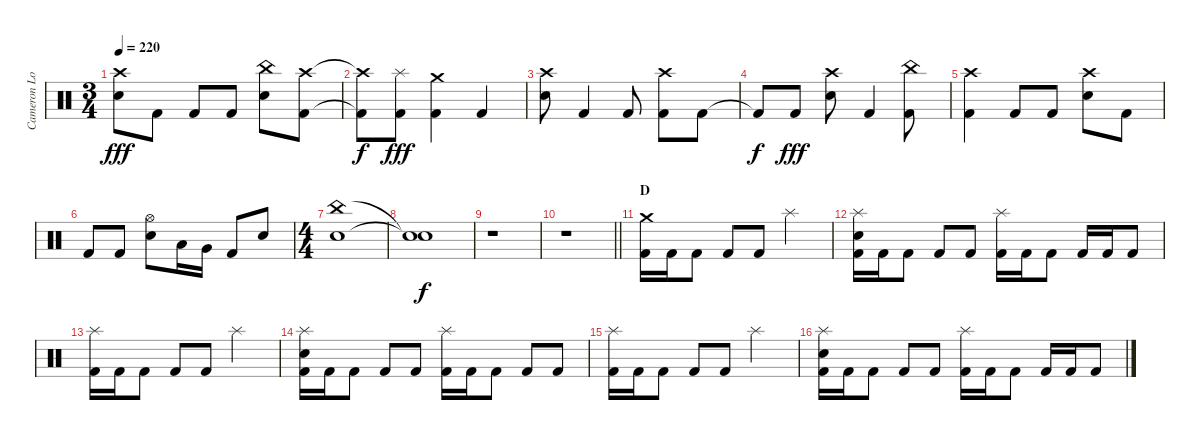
\track ("Cameron Losch - Drums" "Cameron Lo") {instrument percussion}
\staff {score}
\articulation defaults
\ts (3 4)
\tempo 220
\clef neutral
\ks c
("Crash high (hit)" "Electric Snare (hit)").8{dy fff} "Kick (hit) 2".8 "Kick (hit) 2".8 "Kick (hit) 2".8 ("China (hit)" "Electric Snare (hit)").8 ("Crash high (hit)" "Kick (hit) 2").8 |
("Crash high (hit)"{t} "Kick (hit) 2"{t}).8{dy f} ("Splash (hit)" "Kick (hit) 2").8{dy fff} ("Crash medium (hit)" "Kick (hit) 2").4 "Kick (hit) 2".4 |
("Crash high (hit)" "Electric Snare (hit)").8 "Kick (hit) 2".4 "Kick (hit) 2".8 ("Crash high (hit)" "Kick (hit) 2").8 "Kick (hit) 2".8 |
"Kick (hit) 2"{t}.8{dy f} "Kick (hit) 2".8{dy fff} ("Crash high (hit)" "Electric Snare (hit)").8 "Kick (hit) 2".4 ("China (hit)" "Kick (hit) 2").8 |
("Crash high (hit)" "Kick (hit) 2").4 "Kick (hit) 2".8 "Kick (hit) 2".8 ("Crash high (hit)" "Electric Snare (hit)").8 "Kick (hit) 2".8 |
"Kick (hit) 2".8 "Kick (hit) 2".8 ("Hi-Hat (open)" "Electric Snare (hit)").8 "Low Tom (hit)".16 "Very Low Tom (hit)".16 "Kick (hit) 2".8 "Electric Snare (hit)".8 |
\ts (4 4)
("China (hit)" "Electric Snare (hit)").1 |
("Snare (hit)"{t} "Snare (hit)"{t}).1{dy f} |
r.1 |
\barLineRight lightlight
r.1 |
\section ("" "D")
("Kick (hit) 2" "Crash medium (hit)").16 "Kick (hit) 2".16 "Kick (hit) 2".8 "Kick (hit) 2".8 "Kick (hit) 2".8 "Splash (hit)".2 |
("Kick (hit) 2" "Electric Snare (hit)" "Splash (hit)").16 "Kick (hit) 2".16 "Kick (hit) 2".8 "Kick (hit) 2".8 "Kick (hit) 2".8 ("Kick (hit) 2" "Splash (hit)").16 "Kick (hit) 2".16 "Kick (hit) 2".8 "Kick (hit) 2".16 "Kick (hit) 2".16 "Kick (hit) 2".8 |
("Kick (hit) 2" "Splash (hit)").16 "Kick (hit) 2".16 "Kick (hit) 2".8 "Kick (hit) 2".8 "Kick (hit) 2".8 "Splash (hit)".2 |
("Kick (hit) 2" "Electric Snare (hit)" "Splash (hit)").16 "Kick (hit) 2".16 "Kick (hit) 2".8 "Kick (hit) 2".8 "Kick (hit) 2".8 ("Kick (hit) 2" "Splash (hit)").16 "Kick (hit) 2".16 "Kick (hit) 2".8 "Kick (hit) 2".8 "Kick (hit) 2".8 |
("Kick (hit) 2" "Splash (hit)").16 "Kick (hit) 2".16 "Kick (hit) 2".8 "Kick (hit) 2".8 "Kick (hit) 2".8 "Splash (hit)".2 |
("Kick (hit) 2" "Electric Snare (hit)" "Splash (hit)").16 "Kick (hit) 2".16 "Kick (hit) 2".8 "Kick (hit) 2".8 "Kick (hit) 2".8 ("Kick (hit) 2" "Splash (hit)").16 "Kick (hit) 2".16 "Kick (hit) 2".8 "Kick (hit) 2".16 "Kick (hit) 2".16 "Kick (hit) 2".8
